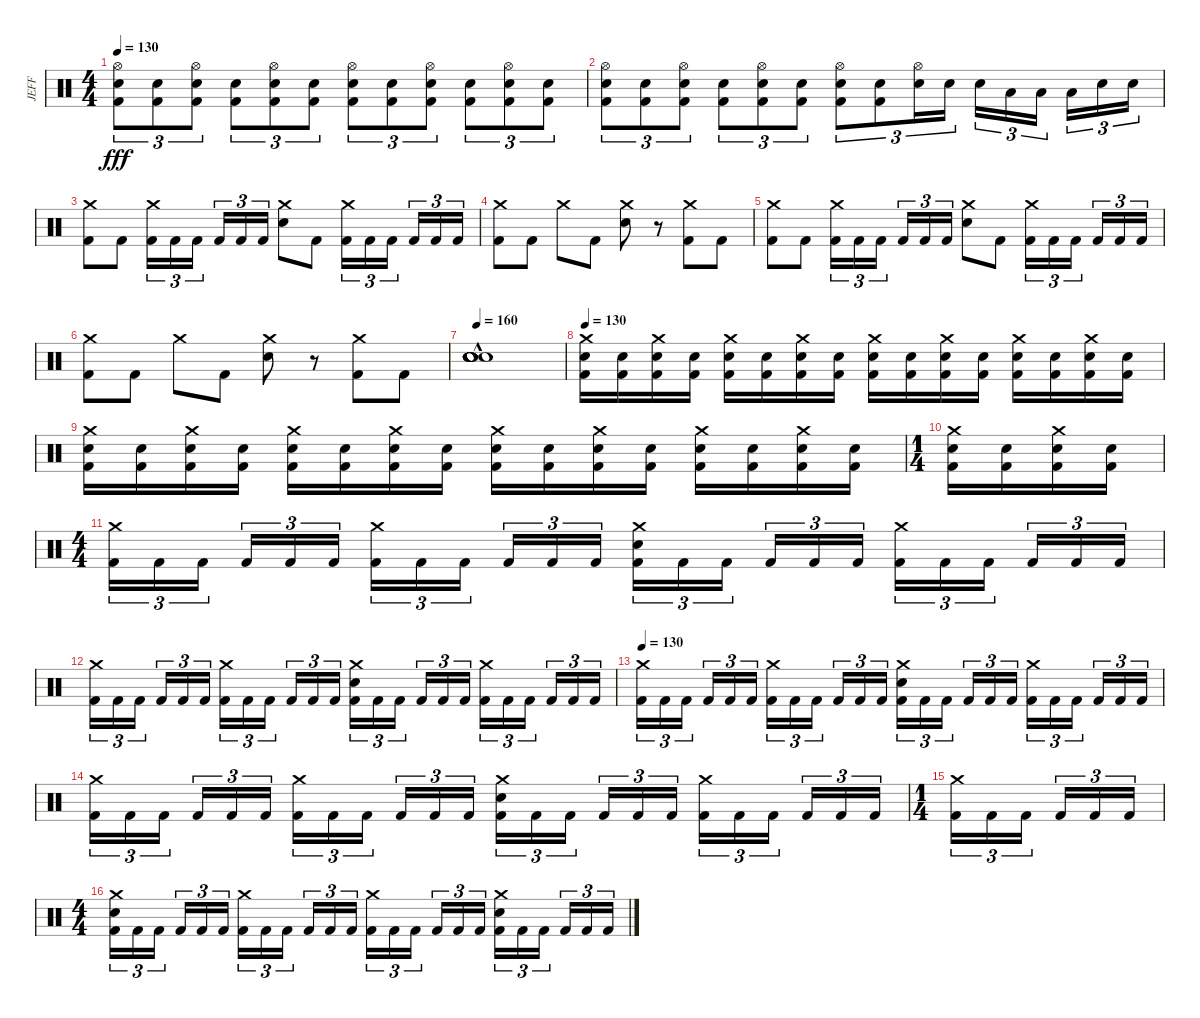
\track ("JEFF" "JEFF") {instrument percussion}
\staff {score}
\articulation defaults
\ts (4 4)
\tempo 130
\clef neutral
\ks c
("Hi-Hat (open)" "Electric Snare (hit)" "Kick (hit) 2").8{tu (3 2) dy fff} ("Electric Snare (hit)" "Kick (hit) 2").8{tu (3 2)} ("Hi-Hat (open)" "Electric Snare (hit)" "Kick (hit) 2").8{tu (3 2)} ("Electric Snare (hit)" "Kick (hit) 2").8{tu (3 2)} ("Hi-Hat (open)" "Electric Snare (hit)" "Kick (hit) 2").8{tu (3 2)} ("Electric Snare (hit)" "Kick (hit) 2").8{tu (3 2)} ("Hi-Hat (open)" "Electric Snare (hit)" "Kick (hit) 2").8{tu (3 2)} ("Electric Snare (hit)" "Kick (hit) 2").8{tu (3 2)} ("Hi-Hat (open)" "Electric Snare (hit)" "Kick (hit) 2").8{tu (3 2)} ("Electric Snare (hit)" "Kick (hit) 2").8{tu (3 2)} ("Hi-Hat (open)" "Electric Snare (hit)" "Kick (hit) 2").8{tu (3 2)} ("Electric Snare (hit)" "Kick (hit) 2").8{tu (3 2)} |
("Hi-Hat (open)" "Electric Snare (hit)" "Kick (hit) 2").8{tu (3 2)} ("Electric Snare (hit)" "Kick (hit) 2").8{tu (3 2)} ("Hi-Hat (open)" "Electric Snare (hit)" "Kick (hit) 2").8{tu (3 2)} ("Electric Snare (hit)" "Kick (hit) 2").8{tu (3 2)} ("Hi-Hat (open)" "Electric Snare (hit)" "Kick (hit) 2").8{tu (3 2)} ("Electric Snare (hit)" "Kick (hit) 2").8{tu (3 2)} ("Hi-Hat (open)" "Electric Snare (hit)" "Kick (hit) 2").8{tu (3 2)} ("Electric Snare (hit)" "Kick (hit) 2").8{tu (3 2)} ("Hi-Hat (open)" "Electric Snare (hit)").16{tu (3 2)} "Electric Snare (hit)".16{tu (3 2)} "Electric Snare (hit)".16{tu (3 2)} "Low Tom (hit)".16{tu (3 2)} "Low Tom (hit)".16{tu (3 2) beam splitsecondary} "Low Tom (hit)".16{tu (3 2)} "Electric Snare (hit)".16{tu (3 2)} "Electric Snare (hit)".16{tu (3 2)} |
("Crash medium (hit)" "Kick (hit) 2").8 "Kick (hit) 2".8 ("Crash medium (hit)" "Kick (hit) 2").16{tu (3 2)} "Kick (hit) 2".16{tu (3 2)} "Kick (hit) 2".16{tu (3 2) beam splitsecondary} "Kick (hit) 2".16{tu (3 2)} "Kick (hit) 2".16{tu (3 2)} "Kick (hit) 2".16{tu (3 2)} ("Crash medium (hit)" "Electric Snare (hit)").8 "Kick (hit) 2".8 ("Crash medium (hit)" "Kick (hit) 2").16{tu (3 2)} "Kick (hit) 2".16{tu (3 2)} "Kick (hit) 2".16{tu (3 2) beam splitsecondary} "Kick (hit) 2".16{tu (3 2)} "Kick (hit) 2".16{tu (3 2)} "Kick (hit) 2".16{tu (3 2)} |
("Crash medium (hit)" "Kick (hit) 2").8 "Kick (hit) 2".8 "Crash medium (hit)".8 "Kick (hit) 2".8 ("Crash medium (hit)" "Electric Snare (hit)").8 r.8 ("Crash medium (hit)" "Kick (hit) 2").8 "Kick (hit) 2".8 |
("Crash medium (hit)" "Kick (hit) 2").8 "Kick (hit) 2".8 ("Crash medium (hit)" "Kick (hit) 2").16{tu (3 2)} "Kick (hit) 2".16{tu (3 2)} "Kick (hit) 2".16{tu (3 2) beam splitsecondary} "Kick (hit) 2".16{tu (3 2)} "Kick (hit) 2".16{tu (3 2)} "Kick (hit) 2".16{tu (3 2)} ("Crash medium (hit)" "Electric Snare (hit)").8 "Kick (hit) 2".8 ("Crash medium (hit)" "Kick (hit) 2").16{tu (3 2)} "Kick (hit) 2".16{tu (3 2)} "Kick (hit) 2".16{tu (3 2) beam splitsecondary} "Kick (hit) 2".16{tu (3 2)} "Kick (hit) 2".16{tu (3 2)} "Kick (hit) 2".16{tu (3 2)} |
("Crash medium (hit)" "Kick (hit) 2").8 "Kick (hit) 2".8 "Crash medium (hit)".8 "Kick (hit) 2".8 ("Crash medium (hit)" "Electric Snare (hit)").8 r.8 ("Crash medium (hit)" "Kick (hit) 2").8 "Kick (hit) 2".8 |
\tempo 160
("Electric Snare (hit)" "Electric Snare (hit)" "Electric Snare (hit)"{hac} "Electric Snare (hit)" "Electric Snare (hit)" "Electric Snare (hit)").1 |
\tempo 130
("Crash medium (hit)" "Electric Snare (hit)" "Kick (hit) 2").16 ("Electric Snare (hit)" "Kick (hit) 2").16 ("Crash medium (hit)" "Electric Snare (hit)" "Kick (hit) 2").16 ("Electric Snare (hit)" "Kick (hit) 2").16 ("Crash medium (hit)" "Electric Snare (hit)" "Kick (hit) 2").16 ("Electric Snare (hit)" "Kick (hit) 2").16 ("Crash medium (hit)" "Electric Snare (hit)" "Kick (hit) 2").16 ("Electric Snare (hit)" "Kick (hit) 2").16 ("Crash medium (hit)" "Electric Snare (hit)" "Kick (hit) 2").16 ("Electric Snare (hit)" "Kick (hit) 2").16 ("Crash medium (hit)" "Electric Snare (hit)" "Kick (hit) 2").16 ("Electric Snare (hit)" "Kick (hit) 2").16 ("Crash medium (hit)" "Electric Snare (hit)" "Kick (hit) 2").16 ("Electric Snare (hit)" "Kick (hit) 2").16 ("Crash medium (hit)" "Electric Snare (hit)" "Kick (hit) 2").16 ("Electric Snare (hit)" "Kick (hit) 2").16 |
("Crash medium (hit)" "Electric Snare (hit)" "Kick (hit) 2").16 ("Electric Snare (hit)" "Kick (hit) 2").16 ("Crash medium (hit)" "Electric Snare (hit)" "Kick (hit) 2").16 ("Electric Snare (hit)" "Kick (hit) 2").16 ("Crash medium (hit)" "Electric Snare (hit)" "Kick (hit) 2").16 ("Electric Snare (hit)" "Kick (hit) 2").16 ("Crash medium (hit)" "Electric Snare (hit)" "Kick (hit) 2").16 ("Electric Snare (hit)" "Kick (hit) 2").16 ("Crash medium (hit)" "Electric Snare (hit)" "Kick (hit) 2").16 ("Electric Snare (hit)" "Kick (hit) 2").16 ("Crash medium (hit)" "Electric Snare (hit)" "Kick (hit) 2").16 ("Electric Snare (hit)" "Kick (hit) 2").16 ("Crash medium (hit)" "Electric Snare (hit)" "Kick (hit) 2").16 ("Electric Snare (hit)" "Kick (hit) 2").16 ("Crash medium (hit)" "Electric Snare (hit)" "Kick (hit) 2").16 ("Electric Snare (hit)" "Kick (hit) 2").16 |
\ts (1 4)
("Crash medium (hit)" "Electric Snare (hit)" "Kick (hit) 2").16 ("Electric Snare (hit)" "Kick (hit) 2").16 ("Crash medium (hit)" "Electric Snare (hit)" "Kick (hit) 2").16 ("Electric Snare (hit)" "Kick (hit) 2").16 |
\ts (4 4)
("Crash medium (hit)" "Kick (hit) 2").16{tu (3 2)} "Kick (hit) 2".16{tu (3 2)} "Kick (hit) 2".16{tu (3 2) beam splitsecondary} "Kick (hit) 2".16{tu (3 2)} "Kick (hit) 2".16{tu (3 2)} "Kick (hit) 2".16{tu (3 2)} ("Crash medium (hit)" "Kick (hit) 2").16{tu (3 2)} "Kick (hit) 2".16{tu (3 2)} "Kick (hit) 2".16{tu (3 2) beam splitsecondary} "Kick (hit) 2".16{tu (3 2)} "Kick (hit) 2".16{tu (3 2)} "Kick (hit) 2".16{tu (3 2)} ("Crash medium (hit)" "Electric Snare (hit)" "Kick (hit) 2").16{tu (3 2)} "Kick (hit) 2".16{tu (3 2)} "Kick (hit) 2".16{tu (3 2) beam splitsecondary} "Kick (hit) 2".16{tu (3 2)} "Kick (hit) 2".16{tu (3 2)} "Kick (hit) 2".16{tu (3 2)} ("Crash medium (hit)" "Kick (hit) 2").16{tu (3 2)} "Kick (hit) 2".16{tu (3 2)} "Kick (hit) 2".16{tu (3 2) beam splitsecondary} "Kick (hit) 2".16{tu (3 2)} "Kick (hit) 2".16{tu (3 2)} "Kick (hit) 2".16{tu (3 2)} |
("Crash medium (hit)" "Kick (hit) 2").16{tu (3 2)} "Kick (hit) 2".16{tu (3 2)} "Kick (hit) 2".16{tu (3 2) beam splitsecondary} "Kick (hit) 2".16{tu (3 2)} "Kick (hit) 2".16{tu (3 2)} "Kick (hit) 2".16{tu (3 2)} ("Crash medium (hit)" "Kick (hit) 2").16{tu (3 2)} "Kick (hit) 2".16{tu (3 2)} "Kick (hit) 2".16{tu (3 2) beam splitsecondary} "Kick (hit) 2".16{tu (3 2)} "Kick (hit) 2".16{tu (3 2)} "Kick (hit) 2".16{tu (3 2)} ("Crash medium (hit)" "Electric Snare (hit)" "Kick (hit) 2").16{tu (3 2)} "Kick (hit) 2".16{tu (3 2)} "Kick (hit) 2".16{tu (3 2) beam splitsecondary} "Kick (hit) 2".16{tu (3 2)} "Kick (hit) 2".16{tu (3 2)} "Kick (hit) 2".16{tu (3 2)} ("Crash medium (hit)" "Kick (hit) 2").16{tu (3 2)} "Kick (hit) 2".16{tu (3 2)} "Kick (hit) 2".16{tu (3 2) beam splitsecondary} "Kick (hit) 2".16{tu (3 2)} "Kick (hit) 2".16{tu (3 2)} "Kick (hit) 2".16{tu (3 2)} |
\tempo 130
("Crash medium (hit)" "Kick (hit) 2").16{tu (3 2)} "Kick (hit) 2".16{tu (3 2)} "Kick (hit) 2".16{tu (3 2) beam splitsecondary} "Kick (hit) 2".16{tu (3 2)} "Kick (hit) 2".16{tu (3 2)} "Kick (hit) 2".16{tu (3 2)} ("Crash medium (hit)" "Kick (hit) 2").16{tu (3 2)} "Kick (hit) 2".16{tu (3 2)} "Kick (hit) 2".16{tu (3 2) beam splitsecondary} "Kick (hit) 2".16{tu (3 2)} "Kick (hit) 2".16{tu (3 2)} "Kick (hit) 2".16{tu (3 2)} ("Crash medium (hit)" "Electric Snare (hit)" "Kick (hit) 2").16{tu (3 2)} "Kick (hit) 2".16{tu (3 2)} "Kick (hit) 2".16{tu (3 2) beam splitsecondary} "Kick (hit) 2".16{tu (3 2)} "Kick (hit) 2".16{tu (3 2)} "Kick (hit) 2".16{tu (3 2)} ("Crash medium (hit)" "Kick (hit) 2").16{tu (3 2)} "Kick (hit) 2".16{tu (3 2)} "Kick (hit) 2".16{tu (3 2) beam splitsecondary} "Kick (hit) 2".16{tu (3 2)} "Kick (hit) 2".16{tu (3 2)} "Kick (hit) 2".16{tu (3 2)} |
("Crash medium (hit)" "Kick (hit) 2").16{tu (3 2)} "Kick (hit) 2".16{tu (3 2)} "Kick (hit) 2".16{tu (3 2) beam splitsecondary} "Kick (hit) 2".16{tu (3 2)} "Kick (hit) 2".16{tu (3 2)} "Kick (hit) 2".16{tu (3 2)} ("Crash medium (hit)" "Kick (hit) 2").16{tu (3 2)} "Kick (hit) 2".16{tu (3 2)} "Kick (hit) 2".16{tu (3 2) beam splitsecondary} "Kick (hit) 2".16{tu (3 2)} "Kick (hit) 2".16{tu (3 2)} "Kick (hit) 2".16{tu (3 2)} ("Crash medium (hit)" "Electric Snare (hit)" "Kick (hit) 2").16{tu (3 2)} "Kick (hit) 2".16{tu (3 2)} "Kick (hit) 2".16{tu (3 2) beam splitsecondary} "Kick (hit) 2".16{tu (3 2)} "Kick (hit) 2".16{tu (3 2)} "Kick (hit) 2".16{tu (3 2)} ("Crash medium (hit)" "Kick (hit) 2").16{tu (3 2)} "Kick (hit) 2".16{tu (3 2)} "Kick (hit) 2".16{tu (3 2) beam splitsecondary} "Kick (hit) 2".16{tu (3 2)} "Kick (hit) 2".16{tu (3 2)} "Kick (hit) 2".16{tu (3 2)} |
\ts (1 4)
("Crash medium (hit)" "Kick (hit) 2").16{tu (3 2)} "Kick (hit) 2".16{tu (3 2)} "Kick (hit) 2".16{tu (3 2) beam splitsecondary} "Kick (hit) 2".16{tu (3 2)} "Kick (hit) 2".16{tu (3 2)} "Kick (hit) 2".16{tu (3 2)} |
\ts (4 4)
("Crash medium (hit)" "Electric Snare (hit)" "Kick (hit) 2").16{tu (3 2)} "Kick (hit) 2".16{tu (3 2)} "Kick (hit) 2".16{tu (3 2) beam splitsecondary} "Kick (hit) 2".16{tu (3 2)} "Kick (hit) 2".16{tu (3 2)} "Kick (hit) 2".16{tu (3 2)} ("Crash medium (hit)" "Kick (hit) 2").16{tu (3 2)} "Kick (hit) 2".16{tu (3 2)} "Kick (hit) 2".16{tu (3 2) beam splitsecondary} "Kick (hit) 2".16{tu (3 2)} "Kick (hit) 2".16{tu (3 2)} "Kick (hit) 2".16{tu (3 2)} ("Crash medium (hit)" "Kick (hit) 2").16{tu (3 2)} "Kick (hit) 2".16{tu (3 2)} "Kick (hit) 2".16{tu (3 2) beam splitsecondary} "Kick (hit) 2".16{tu (3 2)} "Kick (hit) 2".16{tu (3 2)} "Kick (hit) 2".16{tu (3 2)} ("Crash medium (hit)" "Electric Snare (hit)" "Kick (hit) 2").16{tu (3 2)} "Kick (hit) 2".16{tu (3 2)} "Kick (hit) 2".16{tu (3 2) beam splitsecondary} "Kick (hit) 2".16{tu (3 2)} "Kick (hit) 2".16{tu (3 2)} "Kick (hit) 2".16{tu (3 2)}
